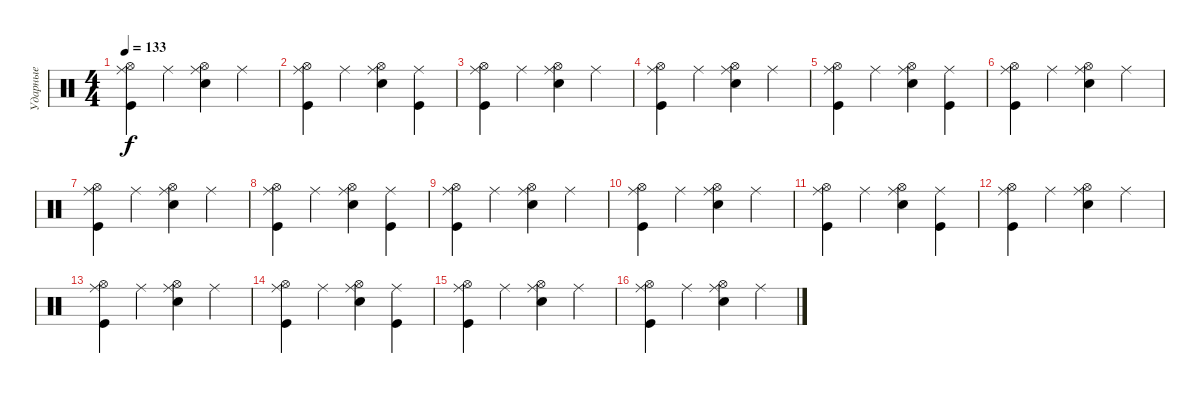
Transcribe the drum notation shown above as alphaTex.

\track ("Ударные" "Ударные") {instrument percussion}
\staff {score}
\articulation defaults
\ts (4 4)
\tempo 133
\clef neutral
\ks c
("Hi-Hat (open)" "Kick (hit)" "Ride (middle)").4{dy f} "Ride (middle)".4 ("Hi-Hat (open)" "Electric Snare (hit)" "Ride (middle)").4 "Ride (middle)".4 |
("Hi-Hat (open)" "Kick (hit)" "Ride (middle)").4 "Ride (middle)".4 ("Hi-Hat (open)" "Electric Snare (hit)" "Ride (middle)").4 ("Kick (hit)" "Ride (middle)").4 |
("Hi-Hat (open)" "Kick (hit)" "Ride (middle)").4 "Ride (middle)".4 ("Hi-Hat (open)" "Electric Snare (hit)" "Ride (middle)").4 "Ride (middle)".4 |
("Hi-Hat (open)" "Kick (hit)" "Ride (middle)").4 "Ride (middle)".4 ("Hi-Hat (open)" "Electric Snare (hit)" "Ride (middle)").4 "Ride (middle)".4 |
("Hi-Hat (open)" "Kick (hit)" "Ride (middle)").4 "Ride (middle)".4 ("Hi-Hat (open)" "Electric Snare (hit)" "Ride (middle)").4 ("Kick (hit)" "Ride (middle)").4 |
("Hi-Hat (open)" "Kick (hit)" "Ride (middle)").4 "Ride (middle)".4 ("Hi-Hat (open)" "Electric Snare (hit)" "Ride (middle)").4 "Ride (middle)".4 |
("Hi-Hat (open)" "Kick (hit)" "Ride (middle)").4 "Ride (middle)".4 ("Hi-Hat (open)" "Electric Snare (hit)" "Ride (middle)").4 "Ride (middle)".4 |
("Hi-Hat (open)" "Kick (hit)" "Ride (middle)").4 "Ride (middle)".4 ("Hi-Hat (open)" "Electric Snare (hit)" "Ride (middle)").4 ("Kick (hit)" "Ride (middle)").4 |
("Hi-Hat (open)" "Kick (hit)" "Ride (middle)").4 "Ride (middle)".4 ("Hi-Hat (open)" "Electric Snare (hit)" "Ride (middle)").4 "Ride (middle)".4 |
("Hi-Hat (open)" "Kick (hit)" "Ride (middle)").4 "Ride (middle)".4 ("Hi-Hat (open)" "Electric Snare (hit)" "Ride (middle)").4 "Ride (middle)".4 |
("Hi-Hat (open)" "Kick (hit)" "Ride (middle)").4 "Ride (middle)".4 ("Hi-Hat (open)" "Electric Snare (hit)" "Ride (middle)").4 ("Kick (hit)" "Ride (middle)").4 |
("Hi-Hat (open)" "Kick (hit)" "Ride (middle)").4 "Ride (middle)".4 ("Hi-Hat (open)" "Electric Snare (hit)" "Ride (middle)").4 "Ride (middle)".4 |
("Hi-Hat (open)" "Kick (hit)" "Ride (middle)").4 "Ride (middle)".4 ("Hi-Hat (open)" "Electric Snare (hit)" "Ride (middle)").4 "Ride (middle)".4 |
("Hi-Hat (open)" "Kick (hit)" "Ride (middle)").4 "Ride (middle)".4 ("Hi-Hat (open)" "Electric Snare (hit)" "Ride (middle)").4 ("Kick (hit)" "Ride (middle)").4 |
("Hi-Hat (open)" "Kick (hit)" "Ride (middle)").4 "Ride (middle)".4 ("Hi-Hat (open)" "Electric Snare (hit)" "Ride (middle)").4 "Ride (middle)".4 |
("Hi-Hat (open)" "Kick (hit)" "Ride (middle)").4 "Ride (middle)".4 ("Hi-Hat (open)" "Electric Snare (hit)" "Ride (middle)").4 "Ride (middle)".4
